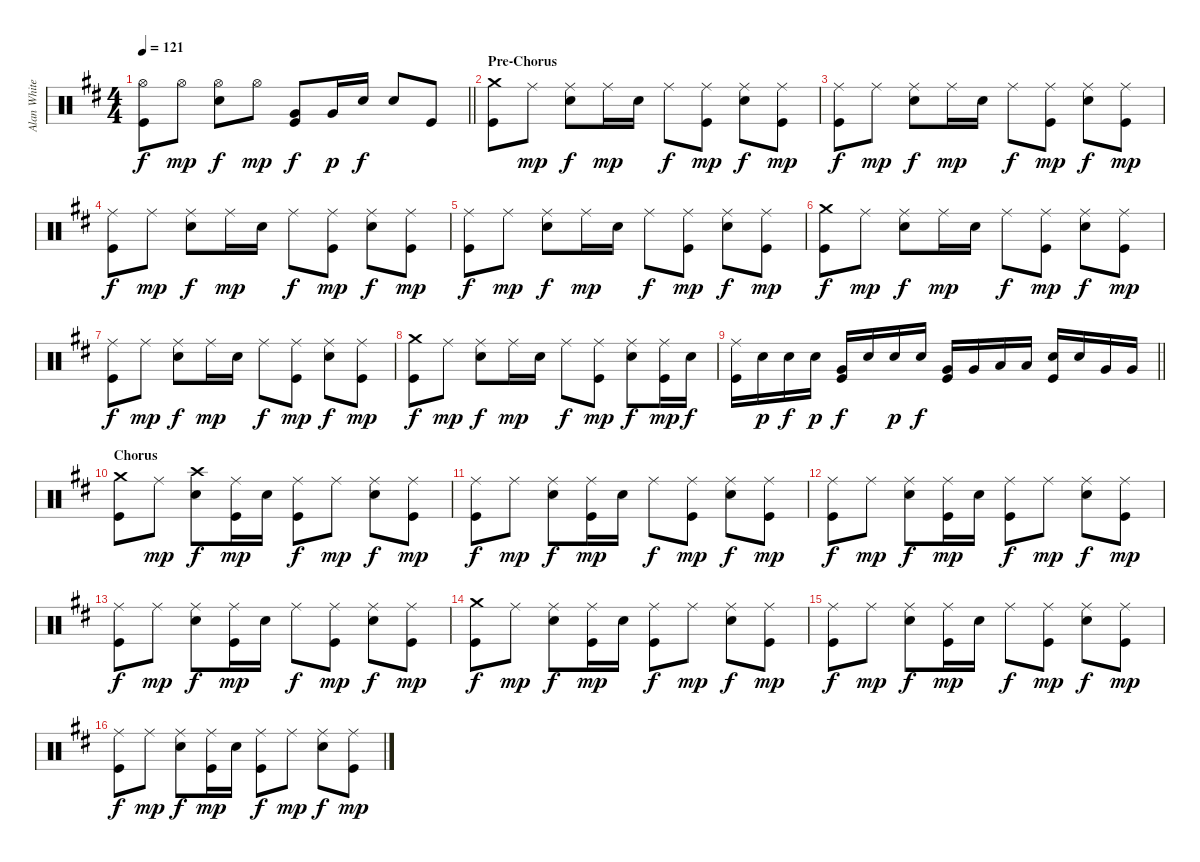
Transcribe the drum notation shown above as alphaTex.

\track ("Alan White" "Alan White") {instrument percussion}
\staff {score}
\articulation defaults
\ts (4 4)
\tempo 121
\clef neutral
\barLineRight lightlight
\ks d
("Hi-Hat (open)" "Kick (hit)").8{dy f} "Hi-Hat (open)".8{dy mp} ("Hi-Hat (open)" "Electric Snare (hit)").8{dy f} "Hi-Hat (open)".8{dy mp} ("Very Low Tom (hit)" "Kick (hit)").8{dy f} "Very Low Tom (hit)".16{dy p} "Electric Snare (hit)".16{dy f} "Electric Snare (hit)".8 "Kick (hit)".8 |
\section ("" "Pre-Chorus")
("Crash medium (hit)" "Kick (hit)").8 "Ride (middle)".8{dy mp} ("Ride (middle)" "Electric Snare (hit)").8{dy f} "Ride (middle)".16{dy mp} "Electric Snare (hit)".16 "Ride (middle)".8{dy f} ("Ride (middle)" "Kick (hit)").8{dy mp} ("Ride (middle)" "Electric Snare (hit)").8{dy f} ("Ride (middle)" "Kick (hit)").8{dy mp} |
("Ride (middle)" "Kick (hit)").8{dy f} "Ride (middle)".8{dy mp} ("Ride (middle)" "Electric Snare (hit)").8{dy f} "Ride (middle)".16{dy mp} "Electric Snare (hit)".16 "Ride (middle)".8{dy f} ("Ride (middle)" "Kick (hit)").8{dy mp} ("Ride (middle)" "Electric Snare (hit)").8{dy f} ("Ride (middle)" "Kick (hit)").8{dy mp} |
("Ride (middle)" "Kick (hit)").8{dy f} "Ride (middle)".8{dy mp} ("Ride (middle)" "Electric Snare (hit)").8{dy f} "Ride (middle)".16{dy mp} "Electric Snare (hit)".16 "Ride (middle)".8{dy f} ("Ride (middle)" "Kick (hit)").8{dy mp} ("Ride (middle)" "Electric Snare (hit)").8{dy f} ("Ride (middle)" "Kick (hit)").8{dy mp} |
("Ride (middle)" "Kick (hit)").8{dy f} "Ride (middle)".8{dy mp} ("Ride (middle)" "Electric Snare (hit)").8{dy f} "Ride (middle)".16{dy mp} "Electric Snare (hit)".16 "Ride (middle)".8{dy f} ("Ride (middle)" "Kick (hit)").8{dy mp} ("Ride (middle)" "Electric Snare (hit)").8{dy f} ("Ride (middle)" "Kick (hit)").8{dy mp} |
("Crash medium (hit)" "Kick (hit)").8{dy f} "Ride (middle)".8{dy mp} ("Ride (middle)" "Electric Snare (hit)").8{dy f} "Ride (middle)".16{dy mp} "Electric Snare (hit)".16 "Ride (middle)".8{dy f} ("Ride (middle)" "Kick (hit)").8{dy mp} ("Ride (middle)" "Electric Snare (hit)").8{dy f} ("Ride (middle)" "Kick (hit)").8{dy mp} |
("Ride (middle)" "Kick (hit)").8{dy f} "Ride (middle)".8{dy mp} ("Ride (middle)" "Electric Snare (hit)").8{dy f} "Ride (middle)".16{dy mp} "Electric Snare (hit)".16 "Ride (middle)".8{dy f} ("Ride (middle)" "Kick (hit)").8{dy mp} ("Ride (middle)" "Electric Snare (hit)").8{dy f} ("Ride (middle)" "Kick (hit)").8{dy mp} |
("Crash medium (hit)" "Kick (hit)").8{dy f} "Ride (middle)".8{dy mp} ("Ride (middle)" "Electric Snare (hit)").8{dy f} "Ride (middle)".16{dy mp} "Electric Snare (hit)".16 "Ride (middle)".8{dy f} ("Ride (middle)" "Kick (hit)").8{dy mp} ("Ride (middle)" "Electric Snare (hit)").8{dy f} ("Ride (middle)" "Kick (hit)").16{dy mp} "Electric Snare (hit)".16{dy f} |
\barLineRight lightlight
("Ride (middle)" "Kick (hit)").16 "Electric Snare (hit)".16{dy p} "Electric Snare (hit)".16{dy f} "Electric Snare (hit)".16{dy p} ("Very Low Tom (hit)" "Kick (hit)").16{dy f} "Electric Snare (hit)".16 "Electric Snare (hit)".16{dy p} "Electric Snare (hit)".16{dy f} ("Very Low Tom (hit)" "Kick (hit)").16 "Very Low Tom (hit)".16 "Low Floor Tom (hit)".16 "Low Floor Tom (hit)".16 ("Electric Snare (hit)" "Kick (hit)").16 "Electric Snare (hit)".16 "Very Low Tom (hit)".16 "Very Low Tom (hit)".16 |
\section ("" "Chorus")
("Crash medium (hit)" "Kick (hit)").8 "Ride (middle)".8{dy mp} ("Crash high (hit)" "Electric Snare (hit)").8{dy f} ("Ride (middle)" "Kick (hit)").16{dy mp} "Electric Snare (hit)".16 ("Ride (middle)" "Kick (hit)").8{dy f} "Ride (middle)".8{dy mp} ("Ride (middle)" "Electric Snare (hit)").8{dy f} ("Ride (middle)" "Kick (hit)").8{dy mp} |
("Ride (middle)" "Kick (hit)").8{dy f} "Ride (middle)".8{dy mp} ("Ride (middle)" "Electric Snare (hit)").8{dy f} ("Ride (middle)" "Kick (hit)").16{dy mp} "Electric Snare (hit)".16 "Ride (middle)".8{dy f} ("Ride (middle)" "Kick (hit)").8{dy mp} ("Ride (middle)" "Electric Snare (hit)").8{dy f} ("Ride (middle)" "Kick (hit)").8{dy mp} |
("Ride (middle)" "Kick (hit)").8{dy f} "Ride (middle)".8{dy mp} ("Ride (middle)" "Electric Snare (hit)").8{dy f} ("Ride (middle)" "Kick (hit)").16{dy mp} "Electric Snare (hit)".16 ("Ride (middle)" "Kick (hit)").8{dy f} "Ride (middle)".8{dy mp} ("Ride (middle)" "Electric Snare (hit)").8{dy f} ("Ride (middle)" "Kick (hit)").8{dy mp} |
("Ride (middle)" "Kick (hit)").8{dy f} "Ride (middle)".8{dy mp} ("Ride (middle)" "Electric Snare (hit)").8{dy f} ("Ride (middle)" "Kick (hit)").16{dy mp} "Electric Snare (hit)".16 "Ride (middle)".8{dy f} ("Ride (middle)" "Kick (hit)").8{dy mp} ("Ride (middle)" "Electric Snare (hit)").8{dy f} ("Ride (middle)" "Kick (hit)").8{dy mp} |
("Crash medium (hit)" "Kick (hit)").8{dy f} "Ride (middle)".8{dy mp} ("Ride (middle)" "Electric Snare (hit)").8{dy f} ("Ride (middle)" "Kick (hit)").16{dy mp} "Electric Snare (hit)".16 ("Ride (middle)" "Kick (hit)").8{dy f} "Ride (middle)".8{dy mp} ("Ride (middle)" "Electric Snare (hit)").8{dy f} ("Ride (middle)" "Kick (hit)").8{dy mp} |
("Ride (middle)" "Kick (hit)").8{dy f} "Ride (middle)".8{dy mp} ("Ride (middle)" "Electric Snare (hit)").8{dy f} ("Ride (middle)" "Kick (hit)").16{dy mp} "Electric Snare (hit)".16 "Ride (middle)".8{dy f} ("Ride (middle)" "Kick (hit)").8{dy mp} ("Ride (middle)" "Electric Snare (hit)").8{dy f} ("Ride (middle)" "Kick (hit)").8{dy mp} |
("Ride (middle)" "Kick (hit)").8{dy f} "Ride (middle)".8{dy mp} ("Ride (middle)" "Electric Snare (hit)").8{dy f} ("Ride (middle)" "Kick (hit)").16{dy mp} "Electric Snare (hit)".16 ("Ride (middle)" "Kick (hit)").8{dy f} "Ride (middle)".8{dy mp} ("Ride (middle)" "Electric Snare (hit)").8{dy f} ("Ride (middle)" "Kick (hit)").8{dy mp}
